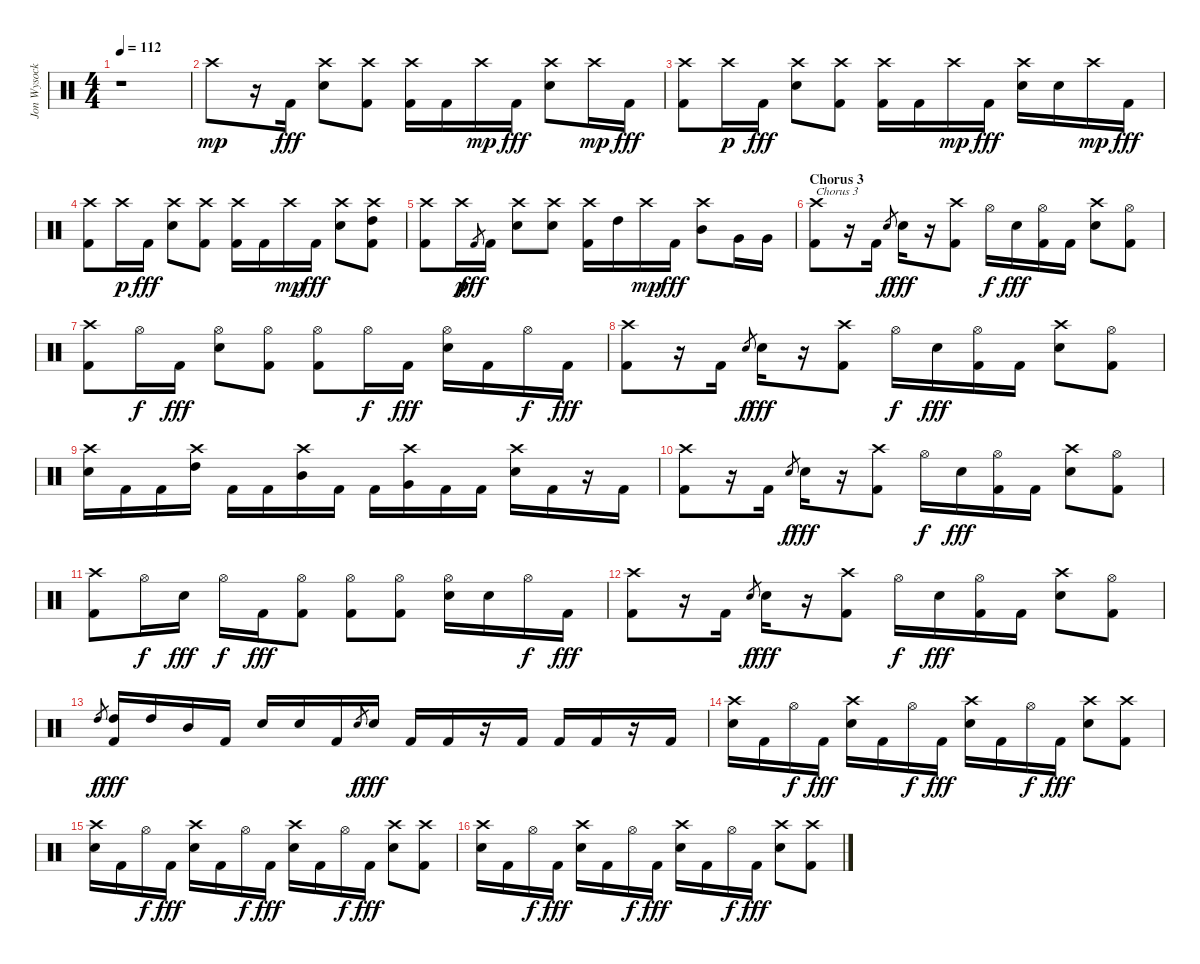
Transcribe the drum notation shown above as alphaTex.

\track ("Jon Wysocki" "Jon Wysock") {instrument percussion}
\staff {score}
\articulation defaults
\ts (4 4)
\tempo 112
\clef neutral
\ks c
r.1{dy fff} |
"Crash high (hit)".8{dy mp} r.16 "Kick (hit) 2".16{dy fff} ("Crash high (hit)" "Electric Snare (hit)").8 ("Crash high (hit)" "Kick (hit) 2").8 ("Crash high (hit)" "Kick (hit) 2").16 "Kick (hit) 2".16 "Crash high (hit)".16{dy mp} "Kick (hit) 2".16{dy fff} ("Crash high (hit)" "Electric Snare (hit)").8 "Crash high (hit)".16{dy mp} "Kick (hit) 2".16{dy fff} |
("Crash high (hit)" "Kick (hit) 2").8 "Crash high (hit)".16{dy p} "Kick (hit) 2".16{dy fff} ("Crash high (hit)" "Electric Snare (hit)").8 ("Crash high (hit)" "Kick (hit) 2").8 ("Crash high (hit)" "Kick (hit) 2").16 "Kick (hit) 2".16 "Crash high (hit)".16{dy mp} "Kick (hit) 2".16{dy fff} ("Crash high (hit)" "Electric Snare (hit)").16 "Electric Snare (hit)".16 "Crash high (hit)".16{dy mp} "Kick (hit) 2".16{dy fff} |
("Crash high (hit)" "Kick (hit) 2").8 "Crash high (hit)".16{dy p} "Kick (hit) 2".16{dy fff} ("Crash high (hit)" "Electric Snare (hit)").8 ("Crash high (hit)" "Kick (hit) 2").8 ("Crash high (hit)" "Kick (hit) 2").16 "Kick (hit) 2".16 "Crash high (hit)".16{dy mp} "Kick (hit) 2".16{dy fff} ("Crash high (hit)" "Electric Snare (hit)").8 ("Crash high (hit)" "High Tom (hit)" "Kick (hit) 2").8 |
("Crash high (hit)" "Kick (hit) 2").8 "Crash high (hit)".16{dy p} "Kick (hit) 2".8{gr dy fff} "Kick (hit) 2".16 ("Crash high (hit)" "Electric Snare (hit)").8 ("Crash high (hit)" "Electric Snare (hit)").8 ("Crash high (hit)" "Kick (hit) 2").16 "High Tom (hit)".16 "Crash high (hit)".16{dy mp} "Kick (hit) 2".16{dy fff} ("Crash high (hit)" "Mid Tom (hit)").8 "Very Low Tom (hit)".16 "Very Low Tom (hit)".16 |
\section ("" "Chorus 3")
("Crash high (hit)" "Kick (hit) 2").8{txt "Chorus 3"} r.16 "Kick (hit) 2".16 "Electric Snare (hit)".8{gr dy f} "Electric Snare (hit)".16{dy fff} r.16 ("Crash high (hit)" "Kick (hit) 2").8 "Hi-Hat (open)".16{dy f} "Electric Snare (hit)".16{dy fff} ("Hi-Hat (open)" "Kick (hit) 2").16 "Kick (hit) 2".16 ("Crash high (hit)" "Electric Snare (hit)").8 ("Hi-Hat (open)" "Kick (hit) 2").8 |
("Crash high (hit)" "Kick (hit) 2").8 "Hi-Hat (open)".16{dy f} "Kick (hit) 2".16{dy fff} ("Hi-Hat (open)" "Electric Snare (hit)").8 ("Hi-Hat (open)" "Kick (hit) 2").8 ("Hi-Hat (open)" "Kick (hit) 2").8 "Hi-Hat (open)".16{dy f} "Kick (hit) 2".16{dy fff} ("Hi-Hat (open)" "Electric Snare (hit)").16 "Kick (hit) 2".16 "Hi-Hat (open)".16{dy f} "Kick (hit) 2".16{dy fff} |
("Crash high (hit)" "Kick (hit) 2").8 r.16 "Kick (hit) 2".16 "Electric Snare (hit)".8{gr dy f} "Electric Snare (hit)".16{dy fff} r.16 ("Crash high (hit)" "Kick (hit) 2").8 "Hi-Hat (open)".16{dy f} "Electric Snare (hit)".16{dy fff} ("Hi-Hat (open)" "Kick (hit) 2").16 "Kick (hit) 2".16 ("Crash high (hit)" "Electric Snare (hit)").8 ("Hi-Hat (open)" "Kick (hit) 2").8 |
("Crash high (hit)" "Electric Snare (hit)").16 "Kick (hit) 2".16 "Kick (hit) 2".16 ("Crash high (hit)" "High Tom (hit)").16 "Kick (hit) 2".16 "Kick (hit) 2".16 ("Crash high (hit)" "Mid Tom (hit)").16 "Kick (hit) 2".16 "Kick (hit) 2".16 ("Crash high (hit)" "Very Low Tom (hit)").16 "Kick (hit) 2".16 "Kick (hit) 2".16 ("Crash high (hit)" "Electric Snare (hit)").16 "Kick (hit) 2".16 r.16 "Kick (hit) 2".16 |
("Crash high (hit)" "Kick (hit) 2").8 r.16 "Kick (hit) 2".16 "Electric Snare (hit)".8{gr dy f} "Electric Snare (hit)".16{dy fff} r.16 ("Crash high (hit)" "Kick (hit) 2").8 "Hi-Hat (open)".16{dy f} "Electric Snare (hit)".16{dy fff} ("Hi-Hat (open)" "Kick (hit) 2").16 "Kick (hit) 2".16 ("Crash high (hit)" "Electric Snare (hit)").8 ("Hi-Hat (open)" "Kick (hit) 2").8 |
("Crash high (hit)" "Kick (hit) 2").8 "Hi-Hat (open)".16{dy f} "Electric Snare (hit)".16{dy fff} "Hi-Hat (open)".16{dy f} "Kick (hit) 2".16{dy fff} ("Hi-Hat (open)" "Kick (hit) 2").8 ("Hi-Hat (open)" "Kick (hit) 2").8 ("Hi-Hat (open)" "Kick (hit) 2").8 ("Hi-Hat (open)" "Electric Snare (hit)").16 "Electric Snare (hit)".16 "Hi-Hat (open)".16{dy f} "Kick (hit) 2".16{dy fff} |
("Crash high (hit)" "Kick (hit) 2").8 r.16 "Kick (hit) 2".16 "Electric Snare (hit)".8{gr dy f} "Electric Snare (hit)".16{dy fff} r.16 ("Crash high (hit)" "Kick (hit) 2").8 "Hi-Hat (open)".16{dy f} "Electric Snare (hit)".16{dy fff} ("Hi-Hat (open)" "Kick (hit) 2").16 "Kick (hit) 2".16 ("Crash high (hit)" "Electric Snare (hit)").8 ("Hi-Hat (open)" "Kick (hit) 2").8 |
"High Tom (hit)".8{gr dy f} ("High Tom (hit)" "Kick (hit) 2").16{dy fff} "High Tom (hit)".16 "Mid Tom (hit)".16 "Kick (hit) 2".16 "Electric Snare (hit)".16 "Electric Snare (hit)".16 "Kick (hit) 2".16 "Electric Snare (hit)".8{gr dy f} "Electric Snare (hit)".16{dy fff} "Kick (hit) 2".16 "Kick (hit) 2".16 r.16 "Kick (hit) 2".16 "Kick (hit) 2".16 "Kick (hit) 2".16 r.16 "Kick (hit) 2".16 |
("Crash high (hit)" "Electric Snare (hit)").16 "Kick (hit) 2".16 "Hi-Hat (open)".16{dy f} "Kick (hit) 2".16{dy fff} ("Crash high (hit)" "Electric Snare (hit)").16 "Kick (hit) 2".16 "Hi-Hat (open)".16{dy f} "Kick (hit) 2".16{dy fff} ("Crash high (hit)" "Electric Snare (hit)").16 "Kick (hit) 2".16 "Hi-Hat (open)".16{dy f} "Kick (hit) 2".16{dy fff} ("Crash high (hit)" "Electric Snare (hit)").8 ("Crash high (hit)" "Kick (hit) 2").8 |
("Crash high (hit)" "Electric Snare (hit)").16 "Kick (hit) 2".16 "Hi-Hat (open)".16{dy f} "Kick (hit) 2".16{dy fff} ("Crash high (hit)" "Electric Snare (hit)").16 "Kick (hit) 2".16 "Hi-Hat (open)".16{dy f} "Kick (hit) 2".16{dy fff} ("Crash high (hit)" "Electric Snare (hit)").16 "Kick (hit) 2".16 "Hi-Hat (open)".16{dy f} "Kick (hit) 2".16{dy fff} ("Crash high (hit)" "Electric Snare (hit)").8 ("Crash high (hit)" "Kick (hit) 2").8 |
("Crash high (hit)" "Electric Snare (hit)").16 "Kick (hit) 2".16 "Hi-Hat (open)".16{dy f} "Kick (hit) 2".16{dy fff} ("Crash high (hit)" "Electric Snare (hit)").16 "Kick (hit) 2".16 "Hi-Hat (open)".16{dy f} "Kick (hit) 2".16{dy fff} ("Crash high (hit)" "Electric Snare (hit)").16 "Kick (hit) 2".16 "Hi-Hat (open)".16{dy f} "Kick (hit) 2".16{dy fff} ("Crash high (hit)" "Electric Snare (hit)").8 ("Crash high (hit)" "Kick (hit) 2").8
